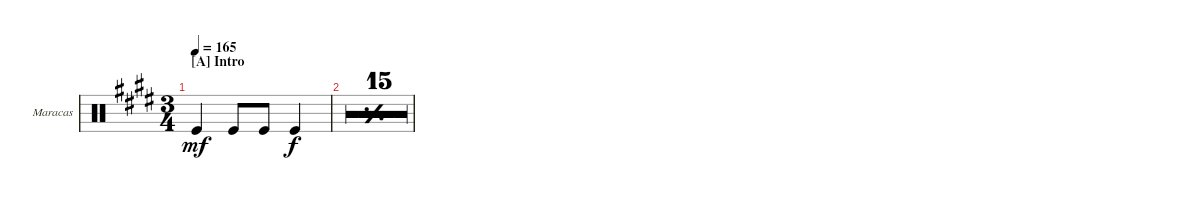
\defaultSystemsLayout 4
\bracketExtendMode groupsimilarinstruments
\firstSystemTrackNameOrientation horizontal
\otherSystemsTrackNameOrientation horizontal
\track ("Maracas" "Maracas") {multiBarRest instrument percussion}
\staff {score}
\articulation defaults
\ts (3 4)
\section ("A" "Intro")
\tempo 165
\clef neutral
\ks e "Kick (hit)".4{dy mf} "Kick (hit)".8 "Kick (hit)".8 "Kick (hit)".4{dy f}
|
\simile simple
|
\simile firstofdouble
|
\simile secondofdouble
|
\simile firstofdouble
|
\simile secondofdouble
|
\simile firstofdouble
|
\simile secondofdouble
|
\simile firstofdouble
|
\simile secondofdouble
|
r.2{d} |
r.2{d} |
r.2{d} |
r.2{d} |
r.2{d} |
r.2{d}
